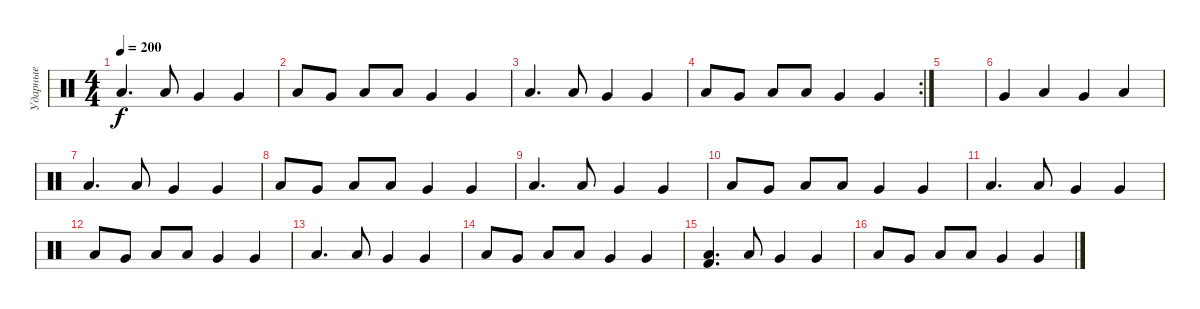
\track ("Ударные" "Ударные") {instrument percussion}
\staff {score}
\articulation defaults
\ts (4 4)
\tempo 200
\clef neutral
\ks c "Low Floor Tom (hit)".4{d dy f} "Low Floor Tom (hit)".8 "Very Low Tom (hit)".4 "Very Low Tom (hit)".4
|
"Low Floor Tom (hit)".8 "Very Low Tom (hit)".8 "Low Floor Tom (hit)".8 "Low Floor Tom (hit)".8 "Very Low Tom (hit)".4 "Very Low Tom (hit)".4 |
"Low Floor Tom (hit)".4{d} "Low Floor Tom (hit)".8 "Very Low Tom (hit)".4 "Very Low Tom (hit)".4 |
\rc 2 "Low Floor Tom (hit)".8 "Very Low Tom (hit)".8 "Low Floor Tom (hit)".8 "Low Floor Tom (hit)".8 "Very Low Tom (hit)".4 "Very Low Tom (hit)".4
|
|
"Very Low Tom (hit)".4 "Low Floor Tom (hit)".4 "Very Low Tom (hit)".4 "Low Floor Tom (hit)".4 |
"Low Floor Tom (hit)".4{d} "Low Floor Tom (hit)".8 "Very Low Tom (hit)".4 "Very Low Tom (hit)".4 |
"Low Floor Tom (hit)".8 "Very Low Tom (hit)".8 "Low Floor Tom (hit)".8 "Low Floor Tom (hit)".8 "Very Low Tom (hit)".4 "Very Low Tom (hit)".4 |
"Low Floor Tom (hit)".4{d} "Low Floor Tom (hit)".8 "Very Low Tom (hit)".4 "Very Low Tom (hit)".4 |
"Low Floor Tom (hit)".8 "Very Low Tom (hit)".8 "Low Floor Tom (hit)".8 "Low Floor Tom (hit)".8 "Very Low Tom (hit)".4 "Very Low Tom (hit)".4 |
"Low Floor Tom (hit)".4{d} "Low Floor Tom (hit)".8 "Very Low Tom (hit)".4 "Very Low Tom (hit)".4 |
"Low Floor Tom (hit)".8 "Very Low Tom (hit)".8 "Low Floor Tom (hit)".8 "Low Floor Tom (hit)".8 "Very Low Tom (hit)".4 "Very Low Tom (hit)".4 |
"Low Floor Tom (hit)".4{d} "Low Floor Tom (hit)".8 "Very Low Tom (hit)".4 "Very Low Tom (hit)".4 |
"Low Floor Tom (hit)".8 "Very Low Tom (hit)".8 "Low Floor Tom (hit)".8 "Low Floor Tom (hit)".8 "Very Low Tom (hit)".4 "Very Low Tom (hit)".4 |
("Low Floor Tom (hit)" "Kick (hit) 2").4{d} "Low Floor Tom (hit)".8 "Very Low Tom (hit)".4 "Very Low Tom (hit)".4 |
"Low Floor Tom (hit)".8 "Very Low Tom (hit)".8 "Low Floor Tom (hit)".8 "Low Floor Tom (hit)".8 "Very Low Tom (hit)".4 "Very Low Tom (hit)".4
